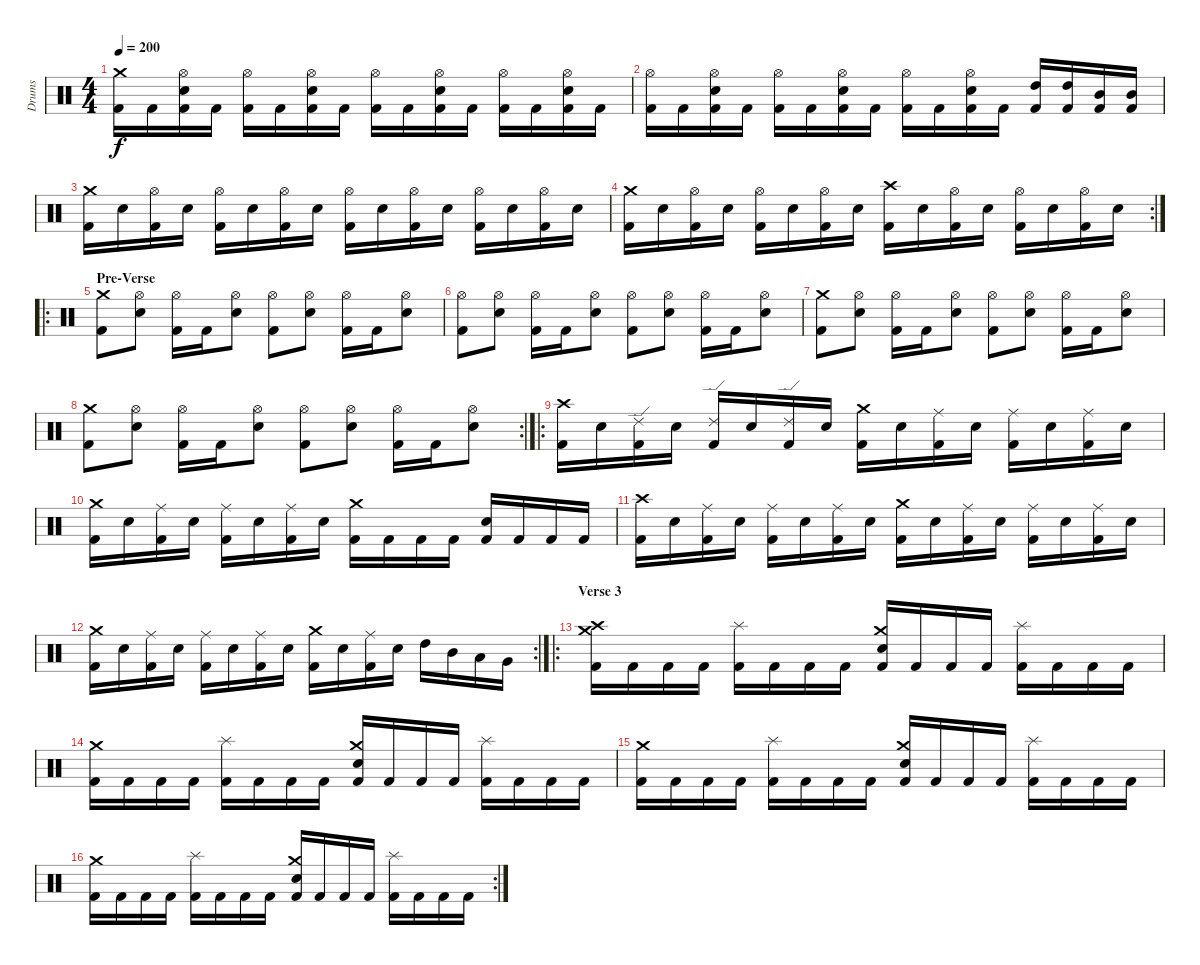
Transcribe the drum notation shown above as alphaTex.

\track ("Drums" "Drums") {instrument percussion}
\staff {score}
\articulation defaults
\ts (4 4)
\tempo 200
\clef neutral
\ks c
("Kick (hit) 2" "Crash medium (hit)").16{dy f} "Kick (hit) 2".16 ("Kick (hit) 2" "Electric Snare (hit)" "Hi-Hat (open)").16 "Kick (hit) 2".16 ("Kick (hit) 2" "Hi-Hat (open)").16 "Kick (hit) 2".16 ("Kick (hit) 2" "Electric Snare (hit)" "Hi-Hat (open)").16 "Kick (hit) 2".16 ("Kick (hit) 2" "Hi-Hat (open)").16 "Kick (hit) 2".16 ("Kick (hit) 2" "Electric Snare (hit)" "Hi-Hat (open)").16 "Kick (hit) 2".16 ("Kick (hit) 2" "Hi-Hat (open)").16 "Kick (hit) 2".16 ("Kick (hit) 2" "Electric Snare (hit)" "Hi-Hat (open)").16 "Kick (hit) 2".16 |
("Kick (hit) 2" "Hi-Hat (open)").16 "Kick (hit) 2".16 ("Kick (hit) 2" "Electric Snare (hit)" "Hi-Hat (open)").16 "Kick (hit) 2".16 ("Kick (hit) 2" "Hi-Hat (open)").16 "Kick (hit) 2".16 ("Kick (hit) 2" "Electric Snare (hit)" "Hi-Hat (open)").16 "Kick (hit) 2".16 ("Kick (hit) 2" "Hi-Hat (open)").16 "Kick (hit) 2".16 ("Kick (hit) 2" "Electric Snare (hit)" "Hi-Hat (open)").16 "Kick (hit) 2".16 ("Kick (hit) 2" "High Tom (hit)").16 ("Kick (hit) 2" "High Tom (hit)").16 ("Kick (hit) 2" "Mid Tom (hit)").16 ("Kick (hit) 2" "Mid Tom (hit)").16 |
("Kick (hit) 2" "Crash medium (hit)").16 "Electric Snare (hit)".16 ("Kick (hit) 2" "Hi-Hat (open)").16 "Electric Snare (hit)".16 ("Kick (hit) 2" "Hi-Hat (open)").16 "Electric Snare (hit)".16 ("Kick (hit) 2" "Hi-Hat (open)").16 "Electric Snare (hit)".16 ("Kick (hit) 2" "Hi-Hat (open)").16 "Electric Snare (hit)".16 ("Kick (hit) 2" "Hi-Hat (open)").16 "Electric Snare (hit)".16 ("Kick (hit) 2" "Hi-Hat (open)").16 "Electric Snare (hit)".16 ("Kick (hit) 2" "Hi-Hat (open)").16 "Electric Snare (hit)".16 |
\rc 2
("Kick (hit) 2" "Crash medium (hit)").16 "Electric Snare (hit)".16 ("Kick (hit) 2" "Hi-Hat (open)").16 "Electric Snare (hit)".16 ("Kick (hit) 2" "Hi-Hat (open)").16 "Electric Snare (hit)".16 ("Kick (hit) 2" "Hi-Hat (open)").16 "Electric Snare (hit)".16 ("Kick (hit) 2" "Crash high (hit)").16 "Electric Snare (hit)".16 ("Kick (hit) 2" "Hi-Hat (open)").16 "Electric Snare (hit)".16 ("Kick (hit) 2" "Hi-Hat (open)").16 "Electric Snare (hit)".16 ("Kick (hit) 2" "Hi-Hat (open)").16 "Electric Snare (hit)".16 |
\ro
\section ("" "Pre-Verse")
("Kick (hit) 2" "Crash medium (hit)").8 ("Electric Snare (hit)" "Hi-Hat (open)").8 ("Kick (hit) 2" "Hi-Hat (open)").16 "Kick (hit) 2".16 ("Electric Snare (hit)" "Hi-Hat (open)").8 ("Kick (hit) 2" "Hi-Hat (open)").8 ("Electric Snare (hit)" "Hi-Hat (open)").8 ("Kick (hit) 2" "Hi-Hat (open)").16 "Kick (hit) 2".16 ("Electric Snare (hit)" "Hi-Hat (open)").8 |
("Kick (hit) 2" "Hi-Hat (open)").8 ("Electric Snare (hit)" "Hi-Hat (open)").8 ("Kick (hit) 2" "Hi-Hat (open)").16 "Kick (hit) 2".16 ("Electric Snare (hit)" "Hi-Hat (open)").8 ("Kick (hit) 2" "Hi-Hat (open)").8 ("Electric Snare (hit)" "Hi-Hat (open)").8 ("Kick (hit) 2" "Hi-Hat (open)").16 "Kick (hit) 2".16 ("Electric Snare (hit)" "Hi-Hat (open)").8 |
("Kick (hit) 2" "Crash medium (hit)").8 ("Electric Snare (hit)" "Hi-Hat (open)").8 ("Kick (hit) 2" "Hi-Hat (open)").16 "Kick (hit) 2".16 ("Electric Snare (hit)" "Hi-Hat (open)").8 ("Kick (hit) 2" "Hi-Hat (open)").8 ("Electric Snare (hit)" "Hi-Hat (open)").8 ("Kick (hit) 2" "Hi-Hat (open)").16 "Kick (hit) 2".16 ("Electric Snare (hit)" "Hi-Hat (open)").8 |
\rc 2
("Kick (hit) 2" "Crash medium (hit)").8 ("Electric Snare (hit)" "Hi-Hat (open)").8 ("Kick (hit) 2" "Hi-Hat (open)").16 "Kick (hit) 2".16 ("Electric Snare (hit)" "Hi-Hat (open)").8 ("Kick (hit) 2" "Hi-Hat (open)").8 ("Electric Snare (hit)" "Hi-Hat (open)").8 ("Kick (hit) 2" "Hi-Hat (open)").16 "Kick (hit) 2".16 ("Electric Snare (hit)" "Hi-Hat (open)").8 |
\ro
("Kick (hit) 2" "Crash high (hit)").16 "Electric Snare (hit)".16 ("Kick (hit) 2" "Ride (edge) 2").16 "Electric Snare (hit)".16 ("Kick (hit) 2" "Ride (edge) 2").16 "Electric Snare (hit)".16 ("Kick (hit) 2" "Ride (edge) 2").16 "Electric Snare (hit)".16 ("Kick (hit) 2" "Crash medium (hit)").16 "Electric Snare (hit)".16 ("Kick (hit) 2" "Ride (middle)").16 "Electric Snare (hit)".16 ("Kick (hit) 2" "Ride (middle)").16 "Electric Snare (hit)".16 ("Kick (hit) 2" "Ride (middle)").16 "Electric Snare (hit)".16 |
("Kick (hit) 2" "Crash medium (hit)").16 "Electric Snare (hit)".16 ("Kick (hit) 2" "Ride (middle)").16 "Electric Snare (hit)".16 ("Kick (hit) 2" "Ride (middle)").16 "Electric Snare (hit)".16 ("Kick (hit) 2" "Ride (middle)").16 "Electric Snare (hit)".16 ("Kick (hit) 2" "Crash medium (hit)").16 "Kick (hit) 2".16 "Kick (hit) 2".16 "Kick (hit) 2".16 ("Kick (hit) 2" "Electric Snare (hit)").16 "Kick (hit) 2".16 "Kick (hit) 2".16 "Kick (hit) 2".16 |
("Kick (hit) 2" "Crash high (hit)").16 "Electric Snare (hit)".16 ("Kick (hit) 2" "Ride (middle)").16 "Electric Snare (hit)".16 ("Kick (hit) 2" "Ride (middle)").16 "Electric Snare (hit)".16 ("Kick (hit) 2" "Ride (middle)").16 "Electric Snare (hit)".16 ("Kick (hit) 2" "Crash medium (hit)").16 "Electric Snare (hit)".16 ("Kick (hit) 2" "Ride (middle)").16 "Electric Snare (hit)".16 ("Kick (hit) 2" "Ride (middle)").16 "Electric Snare (hit)".16 ("Kick (hit) 2" "Ride (middle)").16 "Electric Snare (hit)".16 |
\rc 2
("Kick (hit) 2" "Crash medium (hit)").16 "Electric Snare (hit)".16 ("Kick (hit) 2" "Ride (middle)").16 "Electric Snare (hit)".16 ("Kick (hit) 2" "Ride (middle)").16 "Electric Snare (hit)".16 ("Kick (hit) 2" "Ride (middle)").16 "Electric Snare (hit)".16 ("Kick (hit) 2" "Crash medium (hit)").16 "Electric Snare (hit)".16 ("Kick (hit) 2" "Ride (middle)").16 "Electric Snare (hit)".16 "High Tom (hit)".16 "Mid Tom (hit)".16 "Low Tom (hit)".16 "Very Low Tom (hit)".16 |
\ro
\section ("" "Verse 3")
("Kick (hit) 2" "Crash medium (hit)" "Crash high (hit)").16 "Kick (hit) 2".16 "Kick (hit) 2".16 "Kick (hit) 2".16 ("Kick (hit) 2" "Splash (hit)").16 "Kick (hit) 2".16 "Kick (hit) 2".16 "Kick (hit) 2".16 ("Kick (hit) 2" "Electric Snare (hit)" "Crash medium (hit)").16 "Kick (hit) 2".16 "Kick (hit) 2".16 "Kick (hit) 2".16 ("Kick (hit) 2" "Splash (hit)").16 "Kick (hit) 2".16 "Kick (hit) 2".16 "Kick (hit) 2".16 |
("Kick (hit) 2" "Crash medium (hit)").16 "Kick (hit) 2".16 "Kick (hit) 2".16 "Kick (hit) 2".16 ("Kick (hit) 2" "Splash (hit)").16 "Kick (hit) 2".16 "Kick (hit) 2".16 "Kick (hit) 2".16 ("Kick (hit) 2" "Electric Snare (hit)" "Crash medium (hit)").16 "Kick (hit) 2".16 "Kick (hit) 2".16 "Kick (hit) 2".16 ("Kick (hit) 2" "Splash (hit)").16 "Kick (hit) 2".16 "Kick (hit) 2".16 "Kick (hit) 2".16 |
("Kick (hit) 2" "Crash medium (hit)").16 "Kick (hit) 2".16 "Kick (hit) 2".16 "Kick (hit) 2".16 ("Kick (hit) 2" "Splash (hit)").16 "Kick (hit) 2".16 "Kick (hit) 2".16 "Kick (hit) 2".16 ("Kick (hit) 2" "Electric Snare (hit)" "Crash medium (hit)").16 "Kick (hit) 2".16 "Kick (hit) 2".16 "Kick (hit) 2".16 ("Kick (hit) 2" "Splash (hit)").16 "Kick (hit) 2".16 "Kick (hit) 2".16 "Kick (hit) 2".16 |
\rc 2
("Kick (hit) 2" "Crash medium (hit)").16 "Kick (hit) 2".16 "Kick (hit) 2".16 "Kick (hit) 2".16 ("Kick (hit) 2" "Splash (hit)").16 "Kick (hit) 2".16 "Kick (hit) 2".16 "Kick (hit) 2".16 ("Kick (hit) 2" "Electric Snare (hit)" "Crash medium (hit)").16 "Kick (hit) 2".16 "Kick (hit) 2".16 "Kick (hit) 2".16 ("Kick (hit) 2" "Splash (hit)").16 "Kick (hit) 2".16 "Kick (hit) 2".16 "Kick (hit) 2".16
